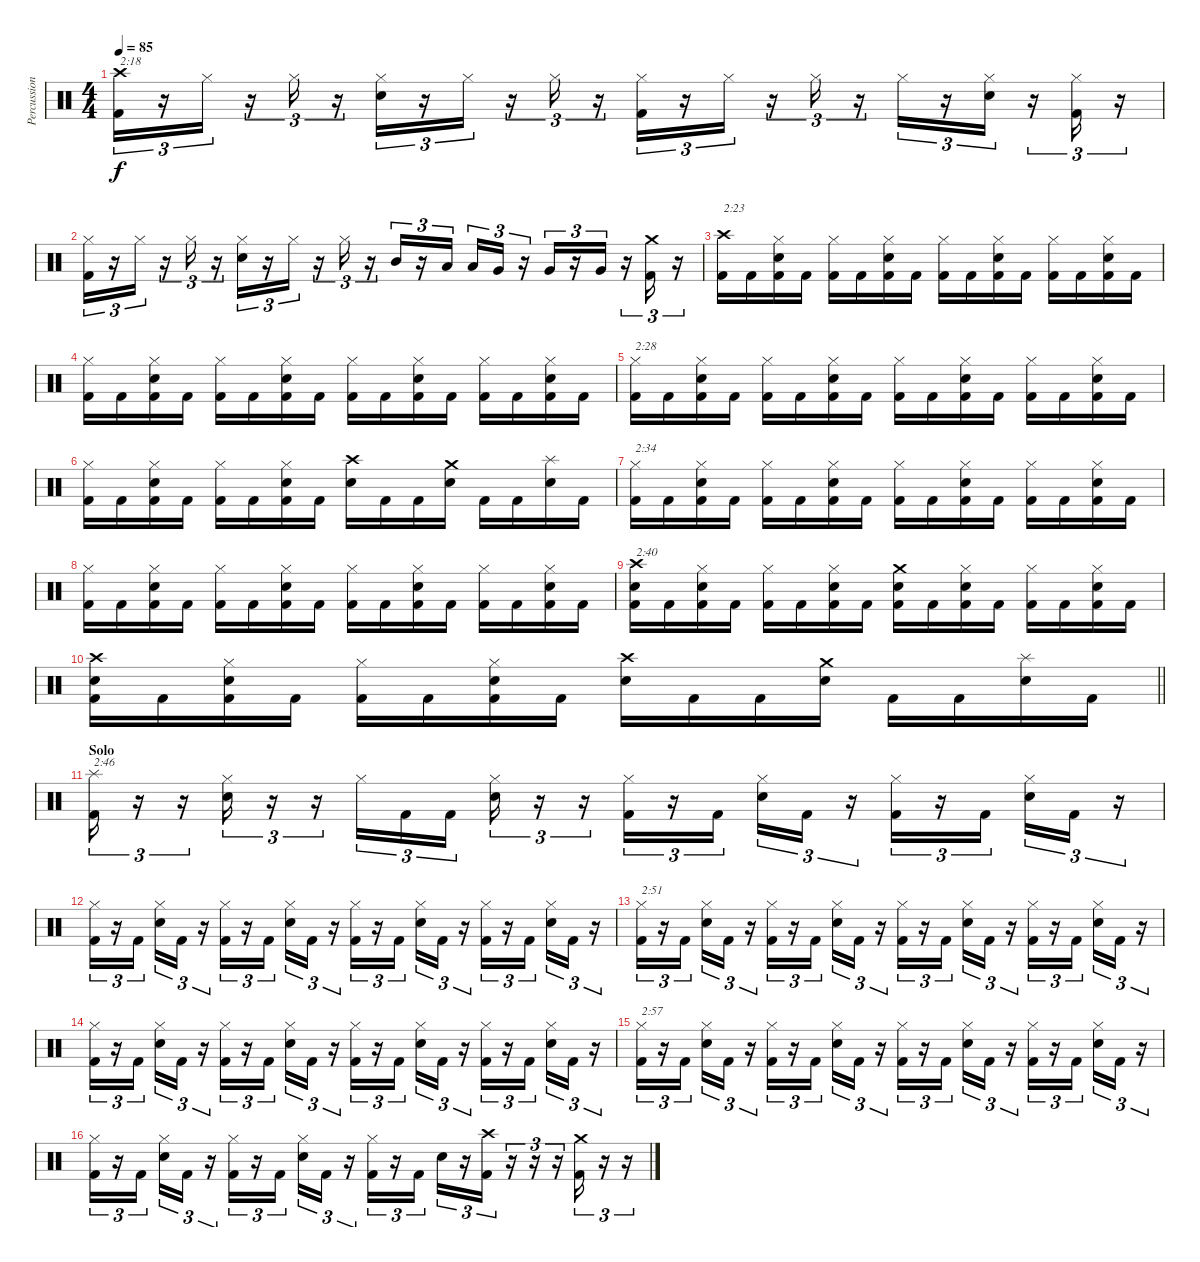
\track ("Percussion" "Percussion") {instrument percussion}
\staff {score}
\articulation defaults
\ts (4 4)
\tempo 85
\clef neutral
\ks c
("Crash high (hit)" "Kick (hit) 2").16{tu (3 2) txt "2:18" dy f} r.16{tu (3 2)} "Hi-Hat (closed)".16{tu (3 2)} r.16{tu (3 2)} "Hi-Hat (closed)".16{tu (3 2)} r.16{tu (3 2)} ("Hi-Hat (closed)" "Snare (hit) 2").16{tu (3 2)} r.16{tu (3 2)} "Hi-Hat (closed)".16{tu (3 2)} r.16{tu (3 2)} "Hi-Hat (closed)".16{tu (3 2)} r.16{tu (3 2)} ("Hi-Hat (closed)" "Kick (hit) 2").16{tu (3 2)} r.16{tu (3 2)} "Hi-Hat (closed)".16{tu (3 2)} r.16{tu (3 2)} "Hi-Hat (closed)".16{tu (3 2)} r.16{tu (3 2)} "Hi-Hat (closed)".16{tu (3 2)} r.16{tu (3 2)} ("Hi-Hat (closed)" "Snare (hit) 2").16{tu (3 2)} r.16{tu (3 2)} ("Hi-Hat (closed)" "Kick (hit) 2").16{tu (3 2)} r.16{tu (3 2)} |
("Hi-Hat (closed)" "Kick (hit) 2").16{tu (3 2)} r.16{tu (3 2)} "Hi-Hat (closed)".16{tu (3 2)} r.16{tu (3 2)} "Hi-Hat (closed)".16{tu (3 2)} r.16{tu (3 2)} ("Hi-Hat (closed)" "Snare (hit) 2").16{tu (3 2)} r.16{tu (3 2)} "Hi-Hat (closed)".16{tu (3 2)} r.16{tu (3 2)} "Hi-Hat (closed)".16{tu (3 2)} r.16{tu (3 2)} "Mid Tom (hit)".16{tu (3 2)} r.16{tu (3 2)} "Low Tom (hit)".16{tu (3 2)} "Low Tom (hit)".16{tu (3 2)} "Very Low Tom (hit)".16{tu (3 2)} r.16{tu (3 2)} "Very Low Tom (hit)".16{tu (3 2)} r.16{tu (3 2)} "Very Low Tom (hit)".16{tu (3 2)} r.16{tu (3 2)} ("Crash medium (hit)" "Kick (hit) 2").16{tu (3 2)} r.16{tu (3 2)} |
("Crash high (hit)" "Kick (hit) 2").16{txt "2:23"} "Kick (hit) 2".16 ("Hi-Hat (closed)" "Snare (hit) 2" "Kick (hit) 2").16 "Kick (hit) 2".16 ("Hi-Hat (closed)" "Kick (hit) 2").16 "Kick (hit) 2".16 ("Hi-Hat (closed)" "Snare (hit) 2" "Kick (hit) 2").16 "Kick (hit) 2".16 ("Hi-Hat (closed)" "Kick (hit) 2").16 "Kick (hit) 2".16 ("Hi-Hat (closed)" "Snare (hit) 2" "Kick (hit) 2").16 "Kick (hit) 2".16 ("Hi-Hat (closed)" "Kick (hit) 2").16 "Kick (hit) 2".16 ("Hi-Hat (closed)" "Snare (hit) 2" "Kick (hit) 2").16 "Kick (hit) 2".16 |
("Hi-Hat (closed)" "Kick (hit) 2").16 "Kick (hit) 2".16 ("Hi-Hat (closed)" "Snare (hit) 2" "Kick (hit) 2").16 "Kick (hit) 2".16 ("Hi-Hat (closed)" "Kick (hit) 2").16 "Kick (hit) 2".16 ("Hi-Hat (closed)" "Snare (hit) 2" "Kick (hit) 2").16 "Kick (hit) 2".16 ("Hi-Hat (closed)" "Kick (hit) 2").16 "Kick (hit) 2".16 ("Hi-Hat (closed)" "Snare (hit) 2" "Kick (hit) 2").16 "Kick (hit) 2".16 ("Hi-Hat (closed)" "Kick (hit) 2").16 "Kick (hit) 2".16 ("Hi-Hat (closed)" "Snare (hit) 2" "Kick (hit) 2").16 "Kick (hit) 2".16 |
("Hi-Hat (closed)" "Kick (hit) 2").16{txt "2:28"} "Kick (hit) 2".16 ("Hi-Hat (closed)" "Snare (hit) 2" "Kick (hit) 2").16 "Kick (hit) 2".16 ("Hi-Hat (closed)" "Kick (hit) 2").16 "Kick (hit) 2".16 ("Hi-Hat (closed)" "Snare (hit) 2" "Kick (hit) 2").16 "Kick (hit) 2".16 ("Hi-Hat (closed)" "Kick (hit) 2").16 "Kick (hit) 2".16 ("Hi-Hat (closed)" "Snare (hit) 2" "Kick (hit) 2").16 "Kick (hit) 2".16 ("Hi-Hat (closed)" "Kick (hit) 2").16 "Kick (hit) 2".16 ("Hi-Hat (closed)" "Snare (hit) 2" "Kick (hit) 2").16 "Kick (hit) 2".16 |
("Hi-Hat (closed)" "Kick (hit) 2").16 "Kick (hit) 2".16 ("Hi-Hat (closed)" "Snare (hit) 2" "Kick (hit) 2").16 "Kick (hit) 2".16 ("Hi-Hat (closed)" "Kick (hit) 2").16 "Kick (hit) 2".16 ("Hi-Hat (closed)" "Snare (hit) 2" "Kick (hit) 2").16 "Kick (hit) 2".16 ("Crash high (hit)" "Snare (hit) 2").16 "Kick (hit) 2".16 "Kick (hit) 2".16 ("Crash medium (hit)" "Snare (hit) 2").16 "Kick (hit) 2".16 "Kick (hit) 2".16 ("Splash (hit)" "Snare (hit) 2").16 "Kick (hit) 2".16 |
("Hi-Hat (closed)" "Kick (hit) 2").16{txt "2:34"} "Kick (hit) 2".16 ("Hi-Hat (closed)" "Snare (hit) 2" "Kick (hit) 2").16 "Kick (hit) 2".16 ("Hi-Hat (closed)" "Kick (hit) 2").16 "Kick (hit) 2".16 ("Hi-Hat (closed)" "Snare (hit) 2" "Kick (hit) 2").16 "Kick (hit) 2".16 ("Hi-Hat (closed)" "Kick (hit) 2").16 "Kick (hit) 2".16 ("Hi-Hat (closed)" "Snare (hit) 2" "Kick (hit) 2").16 "Kick (hit) 2".16 ("Hi-Hat (closed)" "Kick (hit) 2").16 "Kick (hit) 2".16 ("Hi-Hat (closed)" "Snare (hit) 2" "Kick (hit) 2").16 "Kick (hit) 2".16 |
("Hi-Hat (closed)" "Kick (hit) 2").16 "Kick (hit) 2".16 ("Hi-Hat (closed)" "Snare (hit) 2" "Kick (hit) 2").16 "Kick (hit) 2".16 ("Hi-Hat (closed)" "Kick (hit) 2").16 "Kick (hit) 2".16 ("Hi-Hat (closed)" "Snare (hit) 2" "Kick (hit) 2").16 "Kick (hit) 2".16 ("Hi-Hat (closed)" "Kick (hit) 2").16 "Kick (hit) 2".16 ("Hi-Hat (closed)" "Snare (hit) 2" "Kick (hit) 2").16 "Kick (hit) 2".16 ("Hi-Hat (closed)" "Kick (hit) 2").16 "Kick (hit) 2".16 ("Hi-Hat (closed)" "Snare (hit) 2" "Kick (hit) 2").16 "Kick (hit) 2".16 |
("Crash high (hit)" "Snare (hit) 2" "Kick (hit) 2").16{txt "2:40"} "Kick (hit) 2".16 ("Hi-Hat (closed)" "Snare (hit) 2" "Kick (hit) 2").16 "Kick (hit) 2".16 ("Hi-Hat (closed)" "Kick (hit) 2").16 "Kick (hit) 2".16 ("Hi-Hat (closed)" "Snare (hit) 2" "Kick (hit) 2").16 "Kick (hit) 2".16 ("Crash medium (hit)" "Snare (hit) 2" "Kick (hit) 2").16 "Kick (hit) 2".16 ("Hi-Hat (closed)" "Snare (hit) 2" "Kick (hit) 2").16 "Kick (hit) 2".16 ("Hi-Hat (closed)" "Kick (hit) 2").16 "Kick (hit) 2".16 ("Hi-Hat (closed)" "Snare (hit) 2" "Kick (hit) 2").16 "Kick (hit) 2".16 |
\barLineRight lightlight
("Crash high (hit)" "Snare (hit) 2" "Kick (hit) 2").16 "Kick (hit) 2".16 ("Hi-Hat (closed)" "Snare (hit) 2" "Kick (hit) 2").16 "Kick (hit) 2".16 ("Hi-Hat (closed)" "Kick (hit) 2").16 "Kick (hit) 2".16 ("Hi-Hat (closed)" "Snare (hit) 2" "Kick (hit) 2").16 "Kick (hit) 2".16 ("Crash high (hit)" "Snare (hit) 2").16 "Kick (hit) 2".16 "Kick (hit) 2".16 ("Crash medium (hit)" "Snare (hit) 2").16 "Kick (hit) 2".16 "Kick (hit) 2".16 ("Splash (hit)" "Snare (hit) 2").16 "Kick (hit) 2".16 |
\section ("" "Solo")
("Splash (hit)" "Kick (hit) 2").16{tu (3 2) txt "2:46"} r.16{tu (3 2)} r.16{tu (3 2)} ("Hi-Hat (closed)" "Snare (hit) 2").16{tu (3 2)} r.16{tu (3 2)} r.16{tu (3 2)} "Hi-Hat (closed)".16{tu (3 2)} "Kick (hit) 2".16{tu (3 2)} "Kick (hit) 2".16{tu (3 2)} ("Hi-Hat (closed)" "Snare (hit) 2").16{tu (3 2)} r.16{tu (3 2)} r.16{tu (3 2)} ("Hi-Hat (closed)" "Kick (hit) 2").16{tu (3 2)} r.16{tu (3 2)} "Kick (hit) 2".16{tu (3 2)} ("Hi-Hat (closed)" "Snare (hit) 2").16{tu (3 2)} "Kick (hit) 2".16{tu (3 2)} r.16{tu (3 2)} ("Hi-Hat (closed)" "Kick (hit) 2").16{tu (3 2)} r.16{tu (3 2)} "Kick (hit) 2".16{tu (3 2)} ("Hi-Hat (closed)" "Snare (hit) 2").16{tu (3 2)} "Kick (hit) 2".16{tu (3 2)} r.16{tu (3 2)} |
("Hi-Hat (closed)" "Kick (hit) 2").16{tu (3 2)} r.16{tu (3 2)} "Kick (hit) 2".16{tu (3 2)} ("Hi-Hat (closed)" "Snare (hit) 2").16{tu (3 2)} "Kick (hit) 2".16{tu (3 2)} r.16{tu (3 2)} ("Hi-Hat (closed)" "Kick (hit) 2").16{tu (3 2)} r.16{tu (3 2)} "Kick (hit) 2".16{tu (3 2)} ("Hi-Hat (closed)" "Snare (hit) 2").16{tu (3 2)} "Kick (hit) 2".16{tu (3 2)} r.16{tu (3 2)} ("Hi-Hat (closed)" "Kick (hit) 2").16{tu (3 2)} r.16{tu (3 2)} "Kick (hit) 2".16{tu (3 2)} ("Hi-Hat (closed)" "Snare (hit) 2").16{tu (3 2)} "Kick (hit) 2".16{tu (3 2)} r.16{tu (3 2)} ("Hi-Hat (closed)" "Kick (hit) 2").16{tu (3 2)} r.16{tu (3 2)} "Kick (hit) 2".16{tu (3 2)} ("Hi-Hat (closed)" "Snare (hit) 2").16{tu (3 2)} "Kick (hit) 2".16{tu (3 2)} r.16{tu (3 2)} |
("Hi-Hat (closed)" "Kick (hit) 2").16{tu (3 2) txt "2:51"} r.16{tu (3 2)} "Kick (hit) 2".16{tu (3 2)} ("Hi-Hat (closed)" "Snare (hit) 2").16{tu (3 2)} "Kick (hit) 2".16{tu (3 2)} r.16{tu (3 2)} ("Hi-Hat (closed)" "Kick (hit) 2").16{tu (3 2)} r.16{tu (3 2)} "Kick (hit) 2".16{tu (3 2)} ("Hi-Hat (closed)" "Snare (hit) 2").16{tu (3 2)} "Kick (hit) 2".16{tu (3 2)} r.16{tu (3 2)} ("Hi-Hat (closed)" "Kick (hit) 2").16{tu (3 2)} r.16{tu (3 2)} "Kick (hit) 2".16{tu (3 2)} ("Hi-Hat (closed)" "Snare (hit) 2").16{tu (3 2)} "Kick (hit) 2".16{tu (3 2)} r.16{tu (3 2)} ("Hi-Hat (closed)" "Kick (hit) 2").16{tu (3 2)} r.16{tu (3 2)} "Kick (hit) 2".16{tu (3 2)} ("Hi-Hat (closed)" "Snare (hit) 2").16{tu (3 2)} "Kick (hit) 2".16{tu (3 2)} r.16{tu (3 2)} |
("Hi-Hat (closed)" "Kick (hit) 2").16{tu (3 2)} r.16{tu (3 2)} "Kick (hit) 2".16{tu (3 2)} ("Hi-Hat (closed)" "Snare (hit) 2").16{tu (3 2)} "Kick (hit) 2".16{tu (3 2)} r.16{tu (3 2)} ("Hi-Hat (closed)" "Kick (hit) 2").16{tu (3 2)} r.16{tu (3 2)} "Kick (hit) 2".16{tu (3 2)} ("Hi-Hat (closed)" "Snare (hit) 2").16{tu (3 2)} "Kick (hit) 2".16{tu (3 2)} r.16{tu (3 2)} ("Hi-Hat (closed)" "Kick (hit) 2").16{tu (3 2)} r.16{tu (3 2)} "Kick (hit) 2".16{tu (3 2)} ("Hi-Hat (closed)" "Snare (hit) 2").16{tu (3 2)} "Kick (hit) 2".16{tu (3 2)} r.16{tu (3 2)} ("Hi-Hat (closed)" "Kick (hit) 2").16{tu (3 2)} r.16{tu (3 2)} "Kick (hit) 2".16{tu (3 2)} ("Hi-Hat (closed)" "Snare (hit) 2").16{tu (3 2)} "Kick (hit) 2".16{tu (3 2)} r.16{tu (3 2)} |
("Hi-Hat (closed)" "Kick (hit) 2").16{tu (3 2) txt "2:57"} r.16{tu (3 2)} "Kick (hit) 2".16{tu (3 2)} ("Hi-Hat (closed)" "Snare (hit) 2").16{tu (3 2)} "Kick (hit) 2".16{tu (3 2)} r.16{tu (3 2)} ("Hi-Hat (closed)" "Kick (hit) 2").16{tu (3 2)} r.16{tu (3 2)} "Kick (hit) 2".16{tu (3 2)} ("Hi-Hat (closed)" "Snare (hit) 2").16{tu (3 2)} "Kick (hit) 2".16{tu (3 2)} r.16{tu (3 2)} ("Hi-Hat (closed)" "Kick (hit) 2").16{tu (3 2)} r.16{tu (3 2)} "Kick (hit) 2".16{tu (3 2)} ("Hi-Hat (closed)" "Snare (hit) 2").16{tu (3 2)} "Kick (hit) 2".16{tu (3 2)} r.16{tu (3 2)} ("Hi-Hat (closed)" "Kick (hit) 2").16{tu (3 2)} r.16{tu (3 2)} "Kick (hit) 2".16{tu (3 2)} ("Hi-Hat (closed)" "Snare (hit) 2").16{tu (3 2)} "Kick (hit) 2".16{tu (3 2)} r.16{tu (3 2)} |
("Hi-Hat (closed)" "Kick (hit) 2").16{tu (3 2)} r.16{tu (3 2)} "Kick (hit) 2".16{tu (3 2)} ("Hi-Hat (closed)" "Snare (hit) 2").16{tu (3 2)} "Kick (hit) 2".16{tu (3 2)} r.16{tu (3 2)} ("Hi-Hat (closed)" "Kick (hit) 2").16{tu (3 2)} r.16{tu (3 2)} "Kick (hit) 2".16{tu (3 2)} ("Hi-Hat (closed)" "Snare (hit) 2").16{tu (3 2)} "Kick (hit) 2".16{tu (3 2)} r.16{tu (3 2)} ("Hi-Hat (closed)" "Kick (hit) 2").16{tu (3 2)} r.16{tu (3 2)} "Kick (hit) 2".16{tu (3 2)} "Snare (hit) 2".16{tu (3 2)} r.16{tu (3 2)} ("Crash high (hit)" "Kick (hit) 2").16{tu (3 2)} r.16{tu (3 2)} r.16{tu (3 2)} r.16{tu (3 2)} ("Crash medium (hit)" "Kick (hit) 2").16{tu (3 2)} r.16{tu (3 2)} r.16{tu (3 2)}
